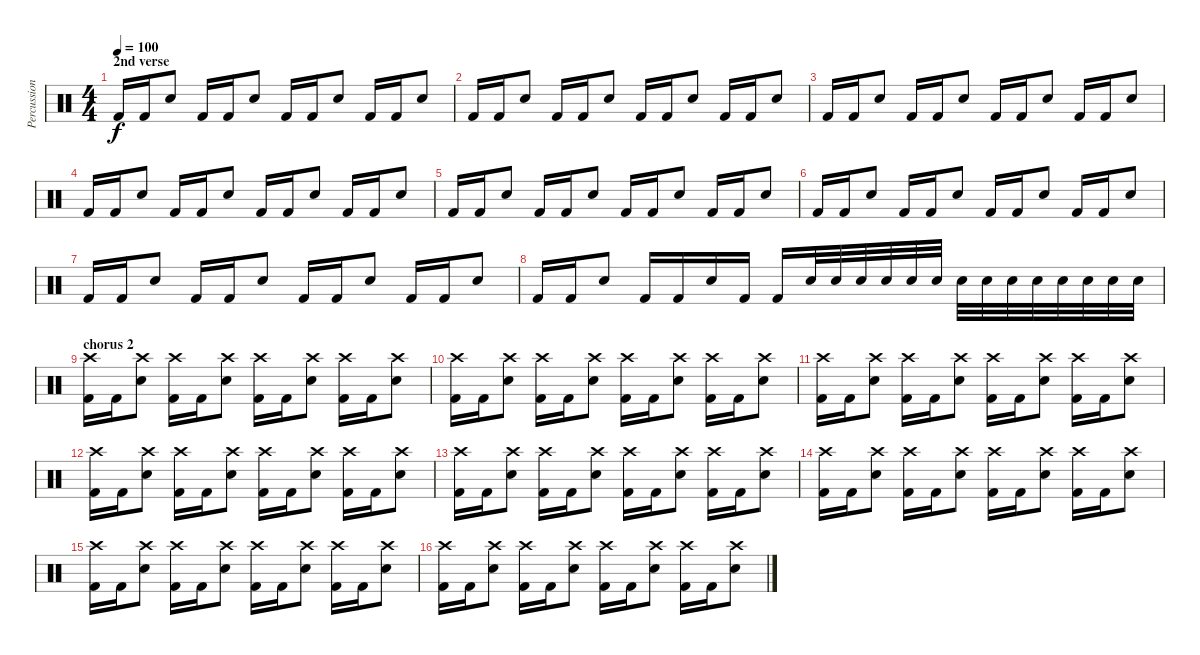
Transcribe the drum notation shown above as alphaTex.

\track ("Percussion" "Percussion") {instrument percussion}
\staff {score}
\articulation defaults
\ts (4 4)
\section ("" "2nd verse")
\tempo 100
\clef neutral
\ks c "Kick (hit) 2".16{dy f} "Kick (hit) 2".16 "Electric Snare (hit)".8 "Kick (hit) 2".16 "Kick (hit) 2".16 "Electric Snare (hit)".8 "Kick (hit) 2".16 "Kick (hit) 2".16 "Electric Snare (hit)".8 "Kick (hit) 2".16 "Kick (hit) 2".16 "Electric Snare (hit)".8
|
"Kick (hit) 2".16 "Kick (hit) 2".16 "Electric Snare (hit)".8 "Kick (hit) 2".16 "Kick (hit) 2".16 "Electric Snare (hit)".8 "Kick (hit) 2".16 "Kick (hit) 2".16 "Electric Snare (hit)".8 "Kick (hit) 2".16 "Kick (hit) 2".16 "Electric Snare (hit)".8 |
"Kick (hit) 2".16 "Kick (hit) 2".16 "Electric Snare (hit)".8 "Kick (hit) 2".16 "Kick (hit) 2".16 "Electric Snare (hit)".8 "Kick (hit) 2".16 "Kick (hit) 2".16 "Electric Snare (hit)".8 "Kick (hit) 2".16 "Kick (hit) 2".16 "Electric Snare (hit)".8 |
"Kick (hit) 2".16 "Kick (hit) 2".16 "Electric Snare (hit)".8 "Kick (hit) 2".16 "Kick (hit) 2".16 "Electric Snare (hit)".8 "Kick (hit) 2".16 "Kick (hit) 2".16 "Electric Snare (hit)".8 "Kick (hit) 2".16 "Kick (hit) 2".16 "Electric Snare (hit)".8 |
"Kick (hit) 2".16 "Kick (hit) 2".16 "Electric Snare (hit)".8 "Kick (hit) 2".16 "Kick (hit) 2".16 "Electric Snare (hit)".8 "Kick (hit) 2".16 "Kick (hit) 2".16 "Electric Snare (hit)".8 "Kick (hit) 2".16 "Kick (hit) 2".16 "Electric Snare (hit)".8 |
"Kick (hit) 2".16 "Kick (hit) 2".16 "Electric Snare (hit)".8 "Kick (hit) 2".16 "Kick (hit) 2".16 "Electric Snare (hit)".8 "Kick (hit) 2".16 "Kick (hit) 2".16 "Electric Snare (hit)".8 "Kick (hit) 2".16 "Kick (hit) 2".16 "Electric Snare (hit)".8 |
"Kick (hit) 2".16 "Kick (hit) 2".16 "Electric Snare (hit)".8 "Kick (hit) 2".16 "Kick (hit) 2".16 "Electric Snare (hit)".8 "Kick (hit) 2".16 "Kick (hit) 2".16 "Electric Snare (hit)".8 "Kick (hit) 2".16 "Kick (hit) 2".16 "Electric Snare (hit)".8 |
"Kick (hit) 2".16 "Kick (hit) 2".16 "Electric Snare (hit)".8 "Kick (hit) 2".16 "Kick (hit) 2".16 "Electric Snare (hit)".16 "Kick (hit) 2".16 "Kick (hit) 2".16 "Electric Snare (hit)".32 "Electric Snare (hit)".32 "Electric Snare (hit)".32 "Electric Snare (hit)".32 "Electric Snare (hit)".32 "Electric Snare (hit)".32 "Electric Snare (hit)".32 "Electric Snare (hit)".32 "Electric Snare (hit)".32 "Electric Snare (hit)".32 "Electric Snare (hit)".32 "Electric Snare (hit)".32 "Electric Snare (hit)".32 "Electric Snare (hit)".32 |
\section ("" "chorus 2")
("Crash high (hit)" "Kick (hit) 2").16 "Kick (hit) 2".16 ("Crash high (hit)" "Electric Snare (hit)").8 ("Crash high (hit)" "Kick (hit) 2").16 "Kick (hit) 2".16 ("Crash high (hit)" "Electric Snare (hit)").8 ("Crash high (hit)" "Kick (hit) 2").16 "Kick (hit) 2".16 ("Crash high (hit)" "Electric Snare (hit)").8 ("Crash high (hit)" "Kick (hit) 2").16 "Kick (hit) 2".16 ("Crash high (hit)" "Electric Snare (hit)").8 |
("Crash high (hit)" "Kick (hit) 2").16 "Kick (hit) 2".16 ("Crash high (hit)" "Electric Snare (hit)").8 ("Crash high (hit)" "Kick (hit) 2").16 "Kick (hit) 2".16 ("Crash high (hit)" "Electric Snare (hit)").8 ("Crash high (hit)" "Kick (hit) 2").16 "Kick (hit) 2".16 ("Crash high (hit)" "Electric Snare (hit)").8 ("Crash high (hit)" "Kick (hit) 2").16 "Kick (hit) 2".16 ("Crash high (hit)" "Electric Snare (hit)").8 |
("Crash high (hit)" "Kick (hit) 2").16 "Kick (hit) 2".16 ("Crash high (hit)" "Electric Snare (hit)").8 ("Crash high (hit)" "Kick (hit) 2").16 "Kick (hit) 2".16 ("Crash high (hit)" "Electric Snare (hit)").8 ("Crash high (hit)" "Kick (hit) 2").16 "Kick (hit) 2".16 ("Crash high (hit)" "Electric Snare (hit)").8 ("Crash high (hit)" "Kick (hit) 2").16 "Kick (hit) 2".16 ("Crash high (hit)" "Electric Snare (hit)").8 |
("Crash high (hit)" "Kick (hit) 2").16 "Kick (hit) 2".16 ("Crash high (hit)" "Electric Snare (hit)").8 ("Crash high (hit)" "Kick (hit) 2").16 "Kick (hit) 2".16 ("Crash high (hit)" "Electric Snare (hit)").8 ("Crash high (hit)" "Kick (hit) 2").16 "Kick (hit) 2".16 ("Crash high (hit)" "Electric Snare (hit)").8 ("Crash high (hit)" "Kick (hit) 2").16 "Kick (hit) 2".16 ("Crash high (hit)" "Electric Snare (hit)").8 |
("Crash high (hit)" "Kick (hit) 2").16 "Kick (hit) 2".16 ("Crash high (hit)" "Electric Snare (hit)").8 ("Crash high (hit)" "Kick (hit) 2").16 "Kick (hit) 2".16 ("Crash high (hit)" "Electric Snare (hit)").8 ("Crash high (hit)" "Kick (hit) 2").16 "Kick (hit) 2".16 ("Crash high (hit)" "Electric Snare (hit)").8 ("Crash high (hit)" "Kick (hit) 2").16 "Kick (hit) 2".16 ("Crash high (hit)" "Electric Snare (hit)").8 |
("Crash high (hit)" "Kick (hit) 2").16 "Kick (hit) 2".16 ("Crash high (hit)" "Electric Snare (hit)").8 ("Crash high (hit)" "Kick (hit) 2").16 "Kick (hit) 2".16 ("Crash high (hit)" "Electric Snare (hit)").8 ("Crash high (hit)" "Kick (hit) 2").16 "Kick (hit) 2".16 ("Crash high (hit)" "Electric Snare (hit)").8 ("Crash high (hit)" "Kick (hit) 2").16 "Kick (hit) 2".16 ("Crash high (hit)" "Electric Snare (hit)").8 |
("Crash high (hit)" "Kick (hit) 2").16 "Kick (hit) 2".16 ("Crash high (hit)" "Electric Snare (hit)").8 ("Crash high (hit)" "Kick (hit) 2").16 "Kick (hit) 2".16 ("Crash high (hit)" "Electric Snare (hit)").8 ("Crash high (hit)" "Kick (hit) 2").16 "Kick (hit) 2".16 ("Crash high (hit)" "Electric Snare (hit)").8 ("Crash high (hit)" "Kick (hit) 2").16 "Kick (hit) 2".16 ("Crash high (hit)" "Electric Snare (hit)").8 |
("Crash high (hit)" "Kick (hit) 2").16 "Kick (hit) 2".16 ("Crash high (hit)" "Electric Snare (hit)").8 ("Crash high (hit)" "Kick (hit) 2").16 "Kick (hit) 2".16 ("Crash high (hit)" "Electric Snare (hit)").8 ("Crash high (hit)" "Kick (hit) 2").16 "Kick (hit) 2".16 ("Crash high (hit)" "Electric Snare (hit)").8 ("Crash high (hit)" "Kick (hit) 2").16 "Kick (hit) 2".16 ("Crash high (hit)" "Electric Snare (hit)").8
